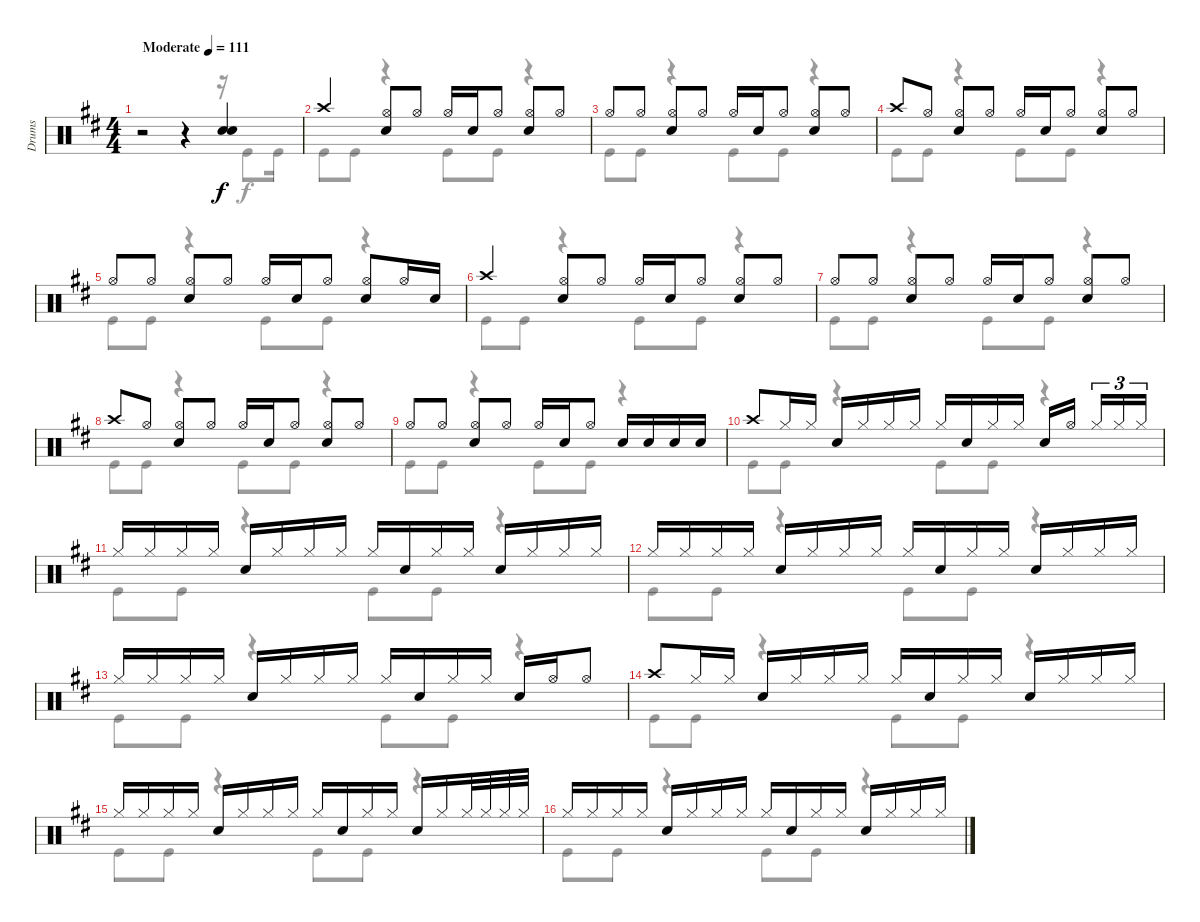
\track ("Drums" "Drums") {instrument percussion}
\staff {score}
\articulation defaults
\voice
\ts (4 4)
\tempo (111 "Moderate")
\clef neutral
\ks d
r.2{dy f} r.4 ("Snare (hit) 2" "Snare (hit) 2").4{beam Up} |
"Crash high (hit)".4{beam Up} ("Snare (hit) 2" "Hi-Hat (open)").8{beam Up} "Hi-Hat (open)".8{beam Up} "Hi-Hat (open)".16{beam Up} "Snare (hit) 2".16{beam Up} "Hi-Hat (open)".8{beam Up} ("Hi-Hat (open)" "Snare (hit) 2").8{beam Up} "Hi-Hat (open)".8{beam Up} |
"Hi-Hat (open)".8{beam Up} "Hi-Hat (open)".8{beam Up} ("Snare (hit) 2" "Hi-Hat (open)").8{beam Up} "Hi-Hat (open)".8{beam Up} "Hi-Hat (open)".16{beam Up} "Snare (hit) 2".16{beam Up} "Hi-Hat (open)".8{beam Up} ("Hi-Hat (open)" "Snare (hit) 2").8{beam Up} "Hi-Hat (open)".8{beam Up} |
"Crash high (hit)".8{beam Up} "Hi-Hat (open)".8{beam Up} ("Snare (hit) 2" "Hi-Hat (open)").8{beam Up} "Hi-Hat (open)".8{beam Up} "Hi-Hat (open)".16{beam Up} "Snare (hit) 2".16{beam Up} "Hi-Hat (open)".8{beam Up} ("Hi-Hat (open)" "Snare (hit) 2").8{beam Up} "Hi-Hat (open)".8{beam Up} |
"Hi-Hat (open)".8{beam Up} "Hi-Hat (open)".8{beam Up} ("Snare (hit) 2" "Hi-Hat (open)").8{beam Up} "Hi-Hat (open)".8{beam Up} "Hi-Hat (open)".16{beam Up} "Snare (hit) 2".16{beam Up} "Hi-Hat (open)".8{beam Up} ("Hi-Hat (open)" "Snare (hit) 2").8{beam Up} "Hi-Hat (open)".16{beam Up} "Snare (hit) 2".16{beam Up} |
"Crash high (hit)".4{beam Up} ("Snare (hit) 2" "Hi-Hat (open)").8{beam Up} "Hi-Hat (open)".8{beam Up} "Hi-Hat (open)".16{beam Up} "Snare (hit) 2".16{beam Up} "Hi-Hat (open)".8{beam Up} ("Hi-Hat (open)" "Snare (hit) 2").8{beam Up} "Hi-Hat (open)".8{beam Up} |
"Hi-Hat (open)".8{beam Up} "Hi-Hat (open)".8{beam Up} ("Snare (hit) 2" "Hi-Hat (open)").8{beam Up} "Hi-Hat (open)".8{beam Up} "Hi-Hat (open)".16{beam Up} "Snare (hit) 2".16{beam Up} "Hi-Hat (open)".8{beam Up} ("Hi-Hat (open)" "Snare (hit) 2").8{beam Up} "Hi-Hat (open)".8{beam Up} |
"Crash high (hit)".8{beam Up} "Hi-Hat (open)".8{beam Up} ("Snare (hit) 2" "Hi-Hat (open)").8{beam Up} "Hi-Hat (open)".8{beam Up} "Hi-Hat (open)".16{beam Up} "Snare (hit) 2".16{beam Up} "Hi-Hat (open)".8{beam Up} ("Hi-Hat (open)" "Snare (hit) 2").8{beam Up} "Hi-Hat (open)".8{beam Up} |
"Hi-Hat (open)".8{beam Up} "Hi-Hat (open)".8{beam Up} ("Snare (hit) 2" "Hi-Hat (open)").8{beam Up} "Hi-Hat (open)".8{beam Up} "Hi-Hat (open)".16{beam Up} "Snare (hit) 2".16{beam Up} "Hi-Hat (open)".8{beam Up} "Snare (hit) 2".16{beam Up} "Snare (hit) 2".16{beam Up} "Snare (hit) 2".16{beam Up} "Snare (hit) 2".16{beam Up} |
"Crash high (hit)".8{beam Up} "Hi-Hat (closed)".16{beam Up} "Hi-Hat (closed)".16{beam Up} "Snare (hit) 2".16{beam Up} "Hi-Hat (closed)".16{beam Up} "Hi-Hat (closed)".16{beam Up} "Hi-Hat (closed)".16{beam Up} "Hi-Hat (closed)".16{beam Up} "Snare (hit) 2".16{beam Up} "Hi-Hat (closed)".16{beam Up} "Hi-Hat (closed)".16{beam Up} "Snare (hit) 2".16{beam Up} "Hi-Hat (open)".16{beam Up beam splitsecondary} "Hi-Hat (closed)".16{tu (3 2) beam Up} "Hi-Hat (closed)".16{tu (3 2) beam Up} "Hi-Hat (closed)".16{tu (3 2) beam Up} |
"Hi-Hat (closed)".16{beam Up} "Hi-Hat (closed)".16{beam Up} "Hi-Hat (closed)".16{beam Up} "Hi-Hat (closed)".16{beam Up} "Snare (hit) 2".16{beam Up} "Hi-Hat (closed)".16{beam Up} "Hi-Hat (closed)".16{beam Up} "Hi-Hat (closed)".16{beam Up} "Hi-Hat (closed)".16{beam Up} "Snare (hit) 2".16{beam Up} "Hi-Hat (closed)".16{beam Up} "Hi-Hat (closed)".16{beam Up} "Snare (hit) 2".16{beam Up} "Hi-Hat (closed)".16{beam Up} "Hi-Hat (closed)".16{beam Up} "Hi-Hat (closed)".16{beam Up} |
"Hi-Hat (closed)".16{beam Up} "Hi-Hat (closed)".16{beam Up} "Hi-Hat (closed)".16{beam Up} "Hi-Hat (closed)".16{beam Up} "Snare (hit) 2".16{beam Up} "Hi-Hat (closed)".16{beam Up} "Hi-Hat (closed)".16{beam Up} "Hi-Hat (closed)".16{beam Up} "Hi-Hat (closed)".16{beam Up} "Snare (hit) 2".16{beam Up} "Hi-Hat (closed)".16{beam Up} "Hi-Hat (closed)".16{beam Up} "Snare (hit) 2".16{beam Up} "Hi-Hat (closed)".16{beam Up} "Hi-Hat (closed)".16{beam Up} "Hi-Hat (closed)".16{beam Up} |
"Hi-Hat (closed)".16{beam Up} "Hi-Hat (closed)".16{beam Up} "Hi-Hat (closed)".16{beam Up} "Hi-Hat (closed)".16{beam Up} "Snare (hit) 2".16{beam Up} "Hi-Hat (closed)".16{beam Up} "Hi-Hat (closed)".16{beam Up} "Hi-Hat (closed)".16{beam Up} "Hi-Hat (closed)".16{beam Up} "Snare (hit) 2".16{beam Up} "Hi-Hat (closed)".16{beam Up} "Hi-Hat (closed)".16{beam Up} "Snare (hit) 2".16{beam Up} "Hi-Hat (open)".16{beam Up} "Hi-Hat (open)".8{beam Up} |
"Crash high (hit)".8{beam Up} "Hi-Hat (closed)".16{beam Up} "Hi-Hat (closed)".16{beam Up} "Snare (hit) 2".16{beam Up} "Hi-Hat (closed)".16{beam Up} "Hi-Hat (closed)".16{beam Up} "Hi-Hat (closed)".16{beam Up} "Hi-Hat (closed)".16{beam Up} "Snare (hit) 2".16{beam Up} "Hi-Hat (closed)".16{beam Up} "Hi-Hat (closed)".16{beam Up} "Snare (hit) 2".16{beam Up} "Hi-Hat (closed)".16{beam Up} "Hi-Hat (closed)".16{beam Up} "Hi-Hat (closed)".16{beam Up} |
"Hi-Hat (closed)".16{beam Up} "Hi-Hat (closed)".16{beam Up} "Hi-Hat (closed)".16{beam Up} "Hi-Hat (closed)".16{beam Up} "Snare (hit) 2".16{beam Up} "Hi-Hat (closed)".16{beam Up} "Hi-Hat (closed)".16{beam Up} "Hi-Hat (closed)".16{beam Up} "Hi-Hat (closed)".16{beam Up} "Snare (hit) 2".16{beam Up} "Hi-Hat (closed)".16{beam Up} "Hi-Hat (closed)".16{beam Up} "Snare (hit) 2".16{beam Up} "Hi-Hat (closed)".16{beam Up} "Hi-Hat (closed)".32{beam Up} "Hi-Hat (closed)".32{beam Up} "Hi-Hat (closed)".32{beam Up} "Hi-Hat (closed)".32{beam Up} |
"Hi-Hat (closed)".16{beam Up} "Hi-Hat (closed)".16{beam Up} "Hi-Hat (closed)".16{beam Up} "Hi-Hat (closed)".16{beam Up} "Snare (hit) 2".16{beam Up} "Hi-Hat (closed)".16{beam Up} "Hi-Hat (closed)".16{beam Up} "Hi-Hat (closed)".16{beam Up} "Hi-Hat (closed)".16{beam Up} "Snare (hit) 2".16{beam Up} "Hi-Hat (closed)".16{beam Up} "Hi-Hat (closed)".16{beam Up} "Snare (hit) 2".16{beam Up} "Hi-Hat (closed)".16{beam Up} "Hi-Hat (closed)".16{beam Up} "Hi-Hat (closed)".16{beam Up}
\voice
\clef neutral
\ottava regular
\simile none
\ks d
r.2{dy f} r.4 r.16 "Kick (hit)".8 "Kick (hit)".16 |
"Kick (hit)".8 "Kick (hit)".8 r.4 "Kick (hit)".8 "Kick (hit)".8 r.4 |
"Kick (hit)".8 "Kick (hit)".8 r.4 "Kick (hit)".8 "Kick (hit)".8 r.4 |
"Kick (hit)".8 "Kick (hit)".8 r.4 "Kick (hit)".8 "Kick (hit)".8 r.4 |
"Kick (hit)".8 "Kick (hit)".8 r.4 "Kick (hit)".8 "Kick (hit)".8 r.4 |
"Kick (hit)".8 "Kick (hit)".8 r.4 "Kick (hit)".8 "Kick (hit)".8 r.4 |
"Kick (hit)".8 "Kick (hit)".8 r.4 "Kick (hit)".8 "Kick (hit)".8 r.4 |
"Kick (hit)".8 "Kick (hit)".8 r.4 "Kick (hit)".8 "Kick (hit)".8 r.4 |
"Kick (hit)".8 "Kick (hit)".8 r.4 "Kick (hit)".8 "Kick (hit)".8 r.4 |
"Kick (hit)".8 "Kick (hit)".8 r.4 "Kick (hit)".8 "Kick (hit)".8 r.4 |
"Kick (hit)".8 "Kick (hit)".8 r.4 "Kick (hit)".8 "Kick (hit)".8 r.4 |
"Kick (hit)".8 "Kick (hit)".8 r.4 "Kick (hit)".8 "Kick (hit)".8 r.4 |
"Kick (hit)".8 "Kick (hit)".8 r.4 "Kick (hit)".8 "Kick (hit)".8 r.4 |
"Kick (hit)".8 "Kick (hit)".8 r.4 "Kick (hit)".8 "Kick (hit)".8 r.4 |
"Kick (hit)".8 "Kick (hit)".8 r.4 "Kick (hit)".8 "Kick (hit)".8 r.4 |
"Kick (hit)".8 "Kick (hit)".8 r.4 "Kick (hit)".8 "Kick (hit)".8 r.4
